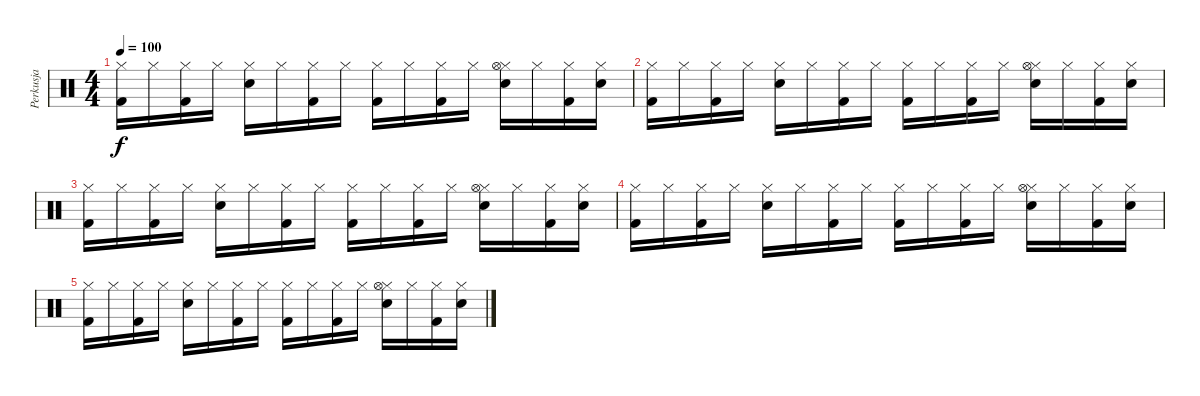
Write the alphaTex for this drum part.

\track ("Perkusja" "Perkusja") {instrument percussion}
\staff {score}
\articulation defaults
\ts (4 4)
\tempo 100
\clef neutral
\ks c
("Hi-Hat (closed)" "Kick (hit) 2").16{dy f} "Hi-Hat (closed)".16 ("Hi-Hat (closed)" "Kick (hit) 2").16 "Hi-Hat (closed)".16 ("Hi-Hat (closed)" "Electric Snare (hit)").16 "Hi-Hat (closed)".16 ("Hi-Hat (closed)" "Kick (hit) 2").16 "Hi-Hat (closed)".16 ("Hi-Hat (closed)" "Kick (hit) 2").16 "Hi-Hat (closed)".16 ("Hi-Hat (closed)" "Kick (hit) 2").16 "Hi-Hat (closed)".16 ("Hi-Hat (closed)" "Hi-Hat (open)" "Electric Snare (hit)").16 "Hi-Hat (closed)".16 ("Hi-Hat (closed)" "Kick (hit) 2").16 ("Hi-Hat (closed)" "Electric Snare (hit)").16 |
("Hi-Hat (closed)" "Kick (hit) 2").16 "Hi-Hat (closed)".16 ("Hi-Hat (closed)" "Kick (hit) 2").16 "Hi-Hat (closed)".16 ("Hi-Hat (closed)" "Electric Snare (hit)").16 "Hi-Hat (closed)".16 ("Hi-Hat (closed)" "Kick (hit) 2").16 "Hi-Hat (closed)".16 ("Hi-Hat (closed)" "Kick (hit) 2").16 "Hi-Hat (closed)".16 ("Hi-Hat (closed)" "Kick (hit) 2").16 "Hi-Hat (closed)".16 ("Hi-Hat (closed)" "Hi-Hat (open)" "Electric Snare (hit)").16 "Hi-Hat (closed)".16 ("Hi-Hat (closed)" "Kick (hit) 2").16 ("Hi-Hat (closed)" "Electric Snare (hit)").16 |
("Hi-Hat (closed)" "Kick (hit) 2").16 "Hi-Hat (closed)".16 ("Hi-Hat (closed)" "Kick (hit) 2").16 "Hi-Hat (closed)".16 ("Hi-Hat (closed)" "Electric Snare (hit)").16 "Hi-Hat (closed)".16 ("Hi-Hat (closed)" "Kick (hit) 2").16 "Hi-Hat (closed)".16 ("Hi-Hat (closed)" "Kick (hit) 2").16 "Hi-Hat (closed)".16 ("Hi-Hat (closed)" "Kick (hit) 2").16 "Hi-Hat (closed)".16 ("Hi-Hat (closed)" "Hi-Hat (open)" "Electric Snare (hit)").16 "Hi-Hat (closed)".16 ("Hi-Hat (closed)" "Kick (hit) 2").16 ("Hi-Hat (closed)" "Electric Snare (hit)").16 |
("Hi-Hat (closed)" "Kick (hit) 2").16 "Hi-Hat (closed)".16 ("Hi-Hat (closed)" "Kick (hit) 2").16 "Hi-Hat (closed)".16 ("Hi-Hat (closed)" "Electric Snare (hit)").16 "Hi-Hat (closed)".16 ("Hi-Hat (closed)" "Kick (hit) 2").16 "Hi-Hat (closed)".16 ("Hi-Hat (closed)" "Kick (hit) 2").16 "Hi-Hat (closed)".16 ("Hi-Hat (closed)" "Kick (hit) 2").16 "Hi-Hat (closed)".16 ("Hi-Hat (closed)" "Hi-Hat (open)" "Electric Snare (hit)").16 "Hi-Hat (closed)".16 ("Hi-Hat (closed)" "Kick (hit) 2").16 ("Hi-Hat (closed)" "Electric Snare (hit)").16 |
("Hi-Hat (closed)" "Kick (hit) 2").16 "Hi-Hat (closed)".16 ("Hi-Hat (closed)" "Kick (hit) 2").16 "Hi-Hat (closed)".16 ("Hi-Hat (closed)" "Electric Snare (hit)").16 "Hi-Hat (closed)".16 ("Hi-Hat (closed)" "Kick (hit) 2").16 "Hi-Hat (closed)".16 ("Hi-Hat (closed)" "Kick (hit) 2").16 "Hi-Hat (closed)".16 ("Hi-Hat (closed)" "Kick (hit) 2").16 "Hi-Hat (closed)".16 ("Hi-Hat (closed)" "Hi-Hat (open)" "Electric Snare (hit)").16 "Hi-Hat (closed)".16 ("Hi-Hat (closed)" "Kick (hit) 2").16 ("Hi-Hat (closed)" "Electric Snare (hit)").16
